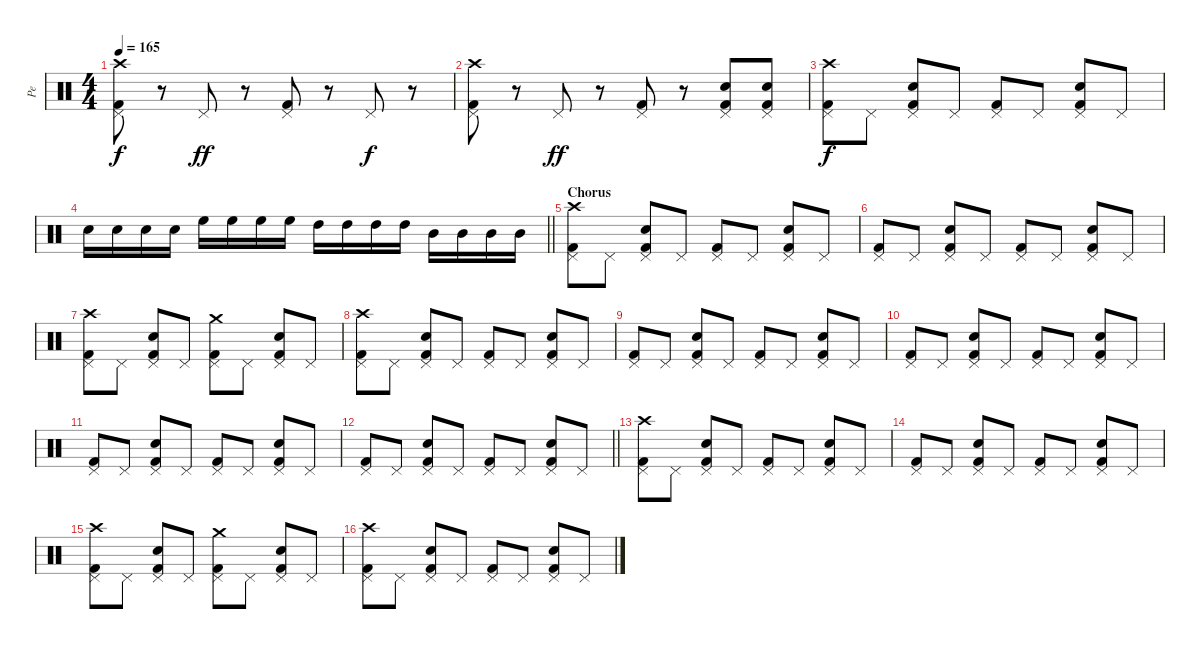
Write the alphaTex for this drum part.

\track ("Pe" "Pe") {instrument percussion}
\staff {score}
\articulation defaults
\ts (4 4)
\tempo 165
\clef neutral
\ks c
("Pedal Hi-Hat (hit)" "Kick (hit) 2" "Crash high (hit)").8{dy f} r.8 "Pedal Hi-Hat (hit)".8{dy ff} r.8 ("Pedal Hi-Hat (hit)" "Kick (hit) 2").8 r.8 "Pedal Hi-Hat (hit)".8{dy f} r.8 |
("Pedal Hi-Hat (hit)" "Kick (hit) 2" "Crash high (hit)").8 r.8 "Pedal Hi-Hat (hit)".8{dy ff} r.8 ("Pedal Hi-Hat (hit)" "Kick (hit) 2").8 r.8 ("Pedal Hi-Hat (hit)" "Electric Snare (hit)" "Kick (hit) 2").8 ("Pedal Hi-Hat (hit)" "Kick (hit) 2" "Electric Snare (hit)").8 |
("Pedal Hi-Hat (hit)" "Kick (hit) 2" "Crash high (hit)").8{dy f} "Pedal Hi-Hat (hit)".8 ("Electric Snare (hit)" "Pedal Hi-Hat (hit)" "Kick (hit) 2").8 "Pedal Hi-Hat (hit)".8 ("Pedal Hi-Hat (hit)" "Kick (hit) 2").8 "Pedal Hi-Hat (hit)".8 ("Electric Snare (hit)" "Pedal Hi-Hat (hit)" "Kick (hit) 2").8 "Pedal Hi-Hat (hit)".8 |
\barLineRight lightlight "Electric Snare (hit)".16 "Electric Snare (hit)".16 "Electric Snare (hit)".16 "Electric Snare (hit)".16 "High Floor Tom (hit)".16 "High Floor Tom (hit)".16 "High Floor Tom (hit)".16 "High Floor Tom (hit)".16 "High Tom (hit)".16 "High Tom (hit)".16 "High Tom (hit)".16 "High Tom (hit)".16 "Mid Tom (hit)".16 "Mid Tom (hit)".16 "Mid Tom (hit)".16 "Mid Tom (hit)".16
|
\section ("" "Chorus")
("Pedal Hi-Hat (hit)" "Kick (hit) 2" "Crash high (hit)").8 "Pedal Hi-Hat (hit)".8 ("Electric Snare (hit)" "Pedal Hi-Hat (hit)" "Kick (hit) 2").8 "Pedal Hi-Hat (hit)".8 ("Pedal Hi-Hat (hit)" "Kick (hit) 2").8 "Pedal Hi-Hat (hit)".8 ("Electric Snare (hit)" "Pedal Hi-Hat (hit)" "Kick (hit) 2").8 "Pedal Hi-Hat (hit)".8 |
("Pedal Hi-Hat (hit)" "Kick (hit) 2").8 "Pedal Hi-Hat (hit)".8 ("Electric Snare (hit)" "Pedal Hi-Hat (hit)" "Kick (hit) 2").8 "Pedal Hi-Hat (hit)".8 ("Pedal Hi-Hat (hit)" "Kick (hit) 2").8 "Pedal Hi-Hat (hit)".8 ("Electric Snare (hit)" "Pedal Hi-Hat (hit)" "Kick (hit) 2").8 "Pedal Hi-Hat (hit)".8 |
("Pedal Hi-Hat (hit)" "Kick (hit) 2" "Crash high (hit)").8 "Pedal Hi-Hat (hit)".8 ("Electric Snare (hit)" "Pedal Hi-Hat (hit)" "Kick (hit) 2").8 "Pedal Hi-Hat (hit)".8 ("Pedal Hi-Hat (hit)" "Kick (hit) 2" "Crash medium (hit)").8 "Pedal Hi-Hat (hit)".8 ("Electric Snare (hit)" "Pedal Hi-Hat (hit)" "Kick (hit) 2").8 "Pedal Hi-Hat (hit)".8 |
("Pedal Hi-Hat (hit)" "Kick (hit) 2" "Crash high (hit)").8 "Pedal Hi-Hat (hit)".8 ("Electric Snare (hit)" "Pedal Hi-Hat (hit)" "Kick (hit) 2").8 "Pedal Hi-Hat (hit)".8 ("Pedal Hi-Hat (hit)" "Kick (hit) 2").8 "Pedal Hi-Hat (hit)".8 ("Electric Snare (hit)" "Pedal Hi-Hat (hit)" "Kick (hit) 2").8 "Pedal Hi-Hat (hit)".8 |
("Pedal Hi-Hat (hit)" "Kick (hit) 2").8 "Pedal Hi-Hat (hit)".8 ("Electric Snare (hit)" "Pedal Hi-Hat (hit)" "Kick (hit) 2").8 "Pedal Hi-Hat (hit)".8 ("Pedal Hi-Hat (hit)" "Kick (hit) 2").8 "Pedal Hi-Hat (hit)".8 ("Electric Snare (hit)" "Pedal Hi-Hat (hit)" "Kick (hit) 2").8 "Pedal Hi-Hat (hit)".8 |
("Pedal Hi-Hat (hit)" "Kick (hit) 2").8 "Pedal Hi-Hat (hit)".8 ("Electric Snare (hit)" "Pedal Hi-Hat (hit)" "Kick (hit) 2").8 "Pedal Hi-Hat (hit)".8 ("Pedal Hi-Hat (hit)" "Kick (hit) 2").8 "Pedal Hi-Hat (hit)".8 ("Electric Snare (hit)" "Pedal Hi-Hat (hit)" "Kick (hit) 2").8 "Pedal Hi-Hat (hit)".8 |
("Pedal Hi-Hat (hit)" "Kick (hit) 2").8 "Pedal Hi-Hat (hit)".8 ("Electric Snare (hit)" "Pedal Hi-Hat (hit)" "Kick (hit) 2").8 "Pedal Hi-Hat (hit)".8 ("Pedal Hi-Hat (hit)" "Kick (hit) 2").8 "Pedal Hi-Hat (hit)".8 ("Electric Snare (hit)" "Pedal Hi-Hat (hit)" "Kick (hit) 2").8 "Pedal Hi-Hat (hit)".8 |
\barLineRight lightlight
("Pedal Hi-Hat (hit)" "Kick (hit) 2").8 "Pedal Hi-Hat (hit)".8 ("Electric Snare (hit)" "Pedal Hi-Hat (hit)" "Kick (hit) 2").8 "Pedal Hi-Hat (hit)".8 ("Pedal Hi-Hat (hit)" "Kick (hit) 2").8 "Pedal Hi-Hat (hit)".8 ("Electric Snare (hit)" "Pedal Hi-Hat (hit)" "Kick (hit) 2").8 "Pedal Hi-Hat (hit)".8 |
("Pedal Hi-Hat (hit)" "Kick (hit) 2" "Crash high (hit)").8 "Pedal Hi-Hat (hit)".8 ("Electric Snare (hit)" "Pedal Hi-Hat (hit)" "Kick (hit) 2").8 "Pedal Hi-Hat (hit)".8 ("Pedal Hi-Hat (hit)" "Kick (hit) 2").8 "Pedal Hi-Hat (hit)".8 ("Electric Snare (hit)" "Pedal Hi-Hat (hit)" "Kick (hit) 2").8 "Pedal Hi-Hat (hit)".8 |
("Pedal Hi-Hat (hit)" "Kick (hit) 2").8 "Pedal Hi-Hat (hit)".8 ("Electric Snare (hit)" "Pedal Hi-Hat (hit)" "Kick (hit) 2").8 "Pedal Hi-Hat (hit)".8 ("Pedal Hi-Hat (hit)" "Kick (hit) 2").8 "Pedal Hi-Hat (hit)".8 ("Electric Snare (hit)" "Pedal Hi-Hat (hit)" "Kick (hit) 2").8 "Pedal Hi-Hat (hit)".8 |
("Pedal Hi-Hat (hit)" "Kick (hit) 2" "Crash high (hit)").8 "Pedal Hi-Hat (hit)".8 ("Electric Snare (hit)" "Pedal Hi-Hat (hit)" "Kick (hit) 2").8 "Pedal Hi-Hat (hit)".8 ("Pedal Hi-Hat (hit)" "Kick (hit) 2" "Crash medium (hit)").8 "Pedal Hi-Hat (hit)".8 ("Electric Snare (hit)" "Pedal Hi-Hat (hit)" "Kick (hit) 2").8 "Pedal Hi-Hat (hit)".8 |
("Pedal Hi-Hat (hit)" "Kick (hit) 2" "Crash high (hit)").8 "Pedal Hi-Hat (hit)".8 ("Electric Snare (hit)" "Pedal Hi-Hat (hit)" "Kick (hit) 2").8 "Pedal Hi-Hat (hit)".8 ("Pedal Hi-Hat (hit)" "Kick (hit) 2").8 "Pedal Hi-Hat (hit)".8 ("Electric Snare (hit)" "Pedal Hi-Hat (hit)" "Kick (hit) 2").8 "Pedal Hi-Hat (hit)".8
